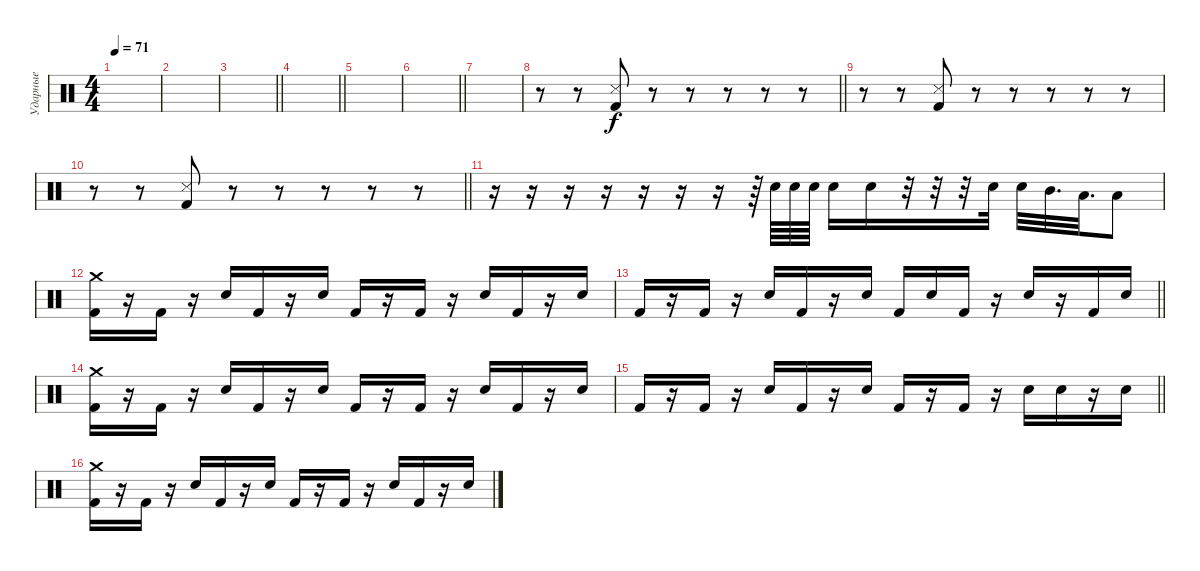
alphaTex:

\track ("Ударные" "Ударные") {instrument percussion}
\staff
\articulation defaults
\ts (4 4)
\tempo 71
\clef neutral
\ks c
|
|
\barLineRight lightlight
|
\barLineRight lightlight
|
|
\barLineRight lightlight
|
|
\barLineRight lightlight
r.8 r.8 ("Snare (side stick) 3" "Kick (hit) 2").8 r.8 r.8 r.8 r.8 r.8 |
r.8 r.8 ("Snare (side stick) 3" "Kick (hit) 2").8 r.8 r.8 r.8 r.8 r.8 |
\barLineRight lightlight
r.8 r.8 ("Snare (side stick) 3" "Kick (hit) 2").8 r.8 r.8 r.8 r.8 r.8 |
r.16 r.16 r.16 r.16 r.16 r.16 r.16 r.64 "Snare (hit) 2".64 "Snare (hit) 2".64 "Snare (hit) 2".64 "Snare (hit) 2".16 "Snare (hit) 2".16 r.32 r.32 r.32 "Snare (hit) 2".32 "Snare (hit) 2".32 "Mid Tom (hit)".32{d} "Low Tom (hit)".32{d} "Low Tom (hit)".8 |
("Kick (hit) 2" "Crash medium (hit)").16 r.16 "Kick (hit) 2".16 r.16 "Snare (hit) 2".16 "Kick (hit) 2".16 r.16 "Snare (hit) 2".16 "Kick (hit) 2".16 r.16 "Kick (hit) 2".16 r.16 "Snare (hit) 2".16 "Kick (hit) 2".16 r.16 "Snare (hit) 2".16 |
\barLineRight lightlight "Kick (hit) 2".16
r.16 "Kick (hit) 2".16 r.16 "Snare (hit) 2".16 "Kick (hit) 2".16 r.16 "Snare (hit) 2".16 "Kick (hit) 2".16 "Snare (hit) 2".16 "Kick (hit) 2".16 r.16 "Snare (hit) 2".16 r.16 "Kick (hit) 2".16 "Snare (hit) 2".16 |
("Kick (hit) 2" "Crash medium (hit)").16 r.16 "Kick (hit) 2".16 r.16 "Snare (hit) 2".16 "Kick (hit) 2".16 r.16 "Snare (hit) 2".16 "Kick (hit) 2".16 r.16 "Kick (hit) 2".16 r.16 "Snare (hit) 2".16 "Kick (hit) 2".16 r.16 "Snare (hit) 2".16 |
\barLineRight lightlight "Kick (hit) 2".16
r.16 "Kick (hit) 2".16 r.16 "Snare (hit) 2".16 "Kick (hit) 2".16 r.16 "Snare (hit) 2".16 "Kick (hit) 2".16 r.16 "Kick (hit) 2".16 r.16 "Snare (hit) 2".16 "Snare (hit) 2".16 r.16 "Snare (hit) 2".16 |
("Kick (hit) 2" "Crash medium (hit)").16 r.16 "Kick (hit) 2".16 r.16 "Snare (hit) 2".16 "Kick (hit) 2".16 r.16 "Snare (hit) 2".16 "Kick (hit) 2".16 r.16 "Kick (hit) 2".16 r.16 "Snare (hit) 2".16 "Kick (hit) 2".16 r.16 "Snare (hit) 2".16
